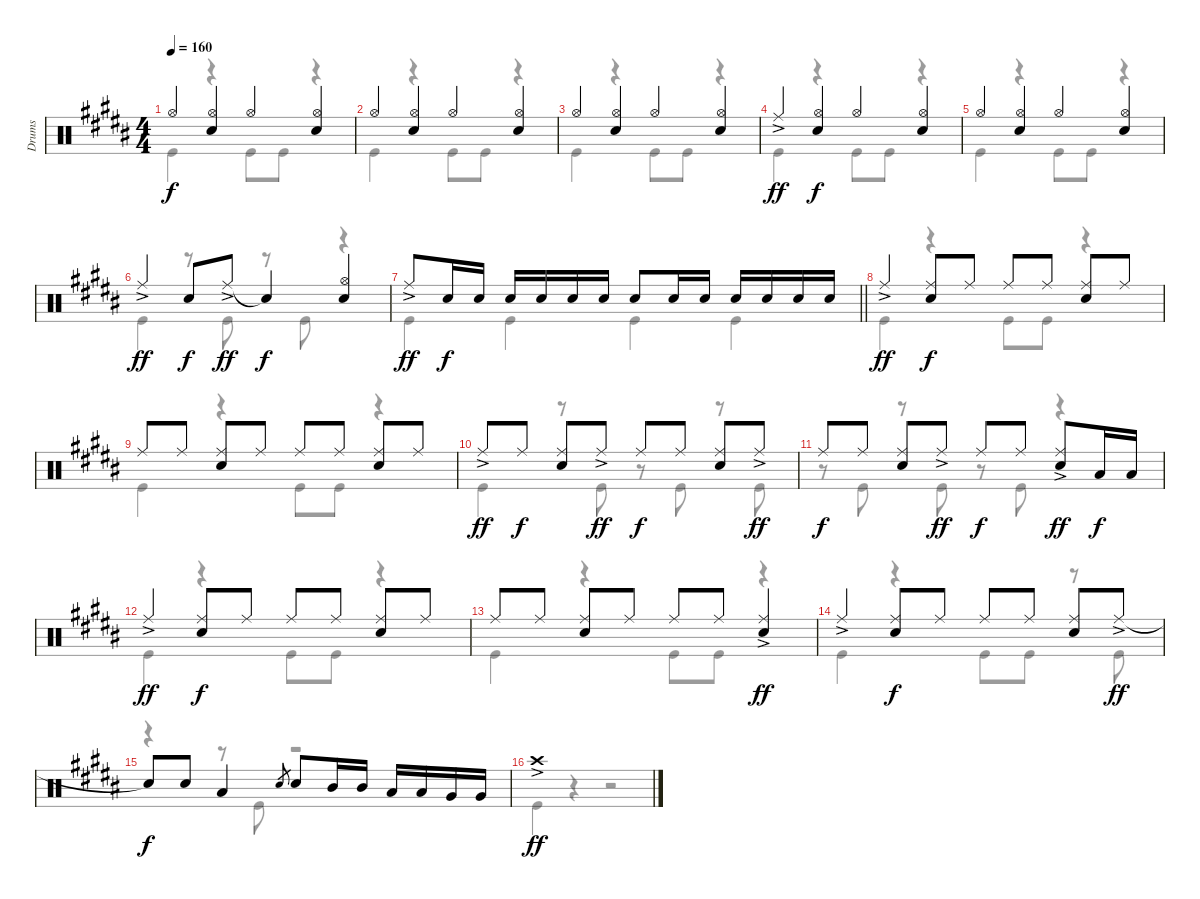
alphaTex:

\track ("Drums" "Drums") {instrument percussion}
\staff {score}
\articulation defaults
\voice
\ts (4 4)
\tempo 160
\clef neutral
\ks b "Hi-Hat (open)".4{dy f}
("Hi-Hat (open)" "Snare (hit) 2").4 "Hi-Hat (open)".4 ("Hi-Hat (open)" "Snare (hit) 2").4 |
"Hi-Hat (open)".4 ("Hi-Hat (open)" "Snare (hit) 2").4 "Hi-Hat (open)".4 ("Hi-Hat (open)" "Snare (hit) 2").4 |
"Hi-Hat (open)".4 ("Hi-Hat (open)" "Snare (hit) 2").4 "Hi-Hat (open)".4 ("Hi-Hat (open)" "Snare (hit) 2").4 |
"Ride (middle)"{ac}.4{dy ff} ("Hi-Hat (open)" "Snare (hit) 2").4{dy f} "Hi-Hat (open)".4 ("Hi-Hat (open)" "Snare (hit) 2").4 |
"Hi-Hat (open)".4 ("Hi-Hat (open)" "Snare (hit) 2").4 "Hi-Hat (open)".4 ("Hi-Hat (open)" "Snare (hit) 2").4 |
"Ride (middle)"{ac}.4{dy ff} "Snare (hit) 2".8{dy f} "Ride (middle)"{ac}.8{dy ff} "Snare (hit)"{t}.4{dy f} ("Hi-Hat (open)" "Snare (hit) 2").4 |
\barLineRight lightlight "Ride (middle)"{ac}.8{dy ff} "Snare (hit) 2".16{dy f} "Snare (hit) 2".16 "Snare (hit) 2".16 "Snare (hit) 2".16 "Snare (hit) 2".16 "Snare (hit) 2".16 "Snare (hit) 2".8 "Snare (hit) 2".16 "Snare (hit) 2".16 "Snare (hit) 2".16 "Snare (hit) 2".16 "Snare (hit) 2".16 "Snare (hit) 2".16
|
"Ride (middle)"{ac}.4{dy ff} ("Ride (middle)" "Snare (hit) 2").8{dy f} "Ride (middle)".8 "Ride (middle)".8 "Ride (middle)".8 ("Ride (middle)" "Snare (hit) 2").8 "Ride (middle)".8 |
"Ride (middle)".8 "Ride (middle)".8 ("Ride (middle)" "Snare (hit) 2").8 "Ride (middle)".8 "Ride (middle)".8 "Ride (middle)".8 ("Ride (middle)" "Snare (hit) 2").8 "Ride (middle)".8 |
"Ride (middle)"{ac}.8{dy ff} "Ride (middle)".8{dy f} ("Ride (middle)" "Snare (hit) 2").8 "Ride (middle)"{ac}.8{dy ff} "Ride (middle)".8{dy f} "Ride (middle)".8 ("Ride (middle)" "Snare (hit) 2").8 "Ride (middle)"{ac}.8{dy ff} |
"Ride (middle)".8{dy f} "Ride (middle)".8 ("Ride (middle)" "Snare (hit) 2").8 "Ride (middle)"{ac}.8{dy ff} "Ride (middle)".8{dy f} "Ride (middle)".8 ("Ride (middle)"{ac} "Snare (hit) 2").8{dy ff} "Low Tom (hit)".16{dy f} "Low Tom (hit)".16 |
"Ride (middle)"{ac}.4{dy ff} ("Ride (middle)" "Snare (hit) 2").8{dy f} "Ride (middle)".8 "Ride (middle)".8 "Ride (middle)".8 ("Ride (middle)" "Snare (hit) 2").8 "Ride (middle)".8 |
"Ride (middle)".8 "Ride (middle)".8 ("Ride (middle)" "Snare (hit) 2").8 "Ride (middle)".8 "Ride (middle)".8 "Ride (middle)".8 ("Ride (middle)"{ac} "Snare (hit) 2").4{dy ff} |
"Ride (middle)"{ac}.4 ("Ride (middle)" "Snare (hit) 2").8{dy f} "Ride (middle)".8 "Ride (middle)".8 "Ride (middle)".8 ("Ride (middle)" "Snare (hit) 2").8 "Ride (middle)"{ac}.8{dy ff} |
"Snare (hit)"{t}.8{dy f} "Snare (hit) 2".8 "Low Tom (hit)".4 "Snare (hit) 2".8{gr} "Snare (hit) 2".8 "Mid Tom (hit)".16 "Mid Tom (hit)".16 "Low Tom (hit)".16 "Low Tom (hit)".16 "Very Low Tom (hit)".16 "Very Low Tom (hit)".16 |
"Crash high (hit)"{ac}.1{dy ff}
\voice
\clef neutral
\ottava regular
\simile none
\ks b "Kick (hit)".4{dy f}
r.4 "Kick (hit)".8 "Kick (hit)".8 r.4 |
"Kick (hit)".4 r.4 "Kick (hit)".8 "Kick (hit)".8 r.4 |
"Kick (hit)".4 r.4 "Kick (hit)".8 "Kick (hit)".8 r.4 |
"Kick (hit)".4 r.4 "Kick (hit)".8 "Kick (hit)".8 r.4 |
"Kick (hit)".4 r.4 "Kick (hit)".8 "Kick (hit)".8 r.4 |
"Kick (hit)".4 r.8 "Kick (hit)".8 r.8 "Kick (hit)".8 r.4 |
\barLineRight lightlight "Kick (hit)".4 "Kick (hit)".4 "Kick (hit)".4 "Kick (hit)".4
|
"Kick (hit)".4 r.4 "Kick (hit)".8 "Kick (hit)".8 r.4 |
"Kick (hit)".4 r.4 "Kick (hit)".8 "Kick (hit)".8 r.4 |
"Kick (hit)".4 r.8 "Kick (hit)".8 r.8 "Kick (hit)".8 r.8 "Kick (hit)".8 |
r.8 "Kick (hit)".8 r.8 "Kick (hit)".8 r.8 "Kick (hit)".8 r.4 |
"Kick (hit)".4 r.4 "Kick (hit)".8 "Kick (hit)".8 r.4 |
"Kick (hit)".4 r.4 "Kick (hit)".8 "Kick (hit)".8 r.4 |
"Kick (hit)".4 r.4 "Kick (hit)".8 "Kick (hit)".8 r.8 "Kick (hit)".8 |
r.4 r.8 "Kick (hit)".8 r.2 |
"Kick (hit)".4 r.4 r.2
